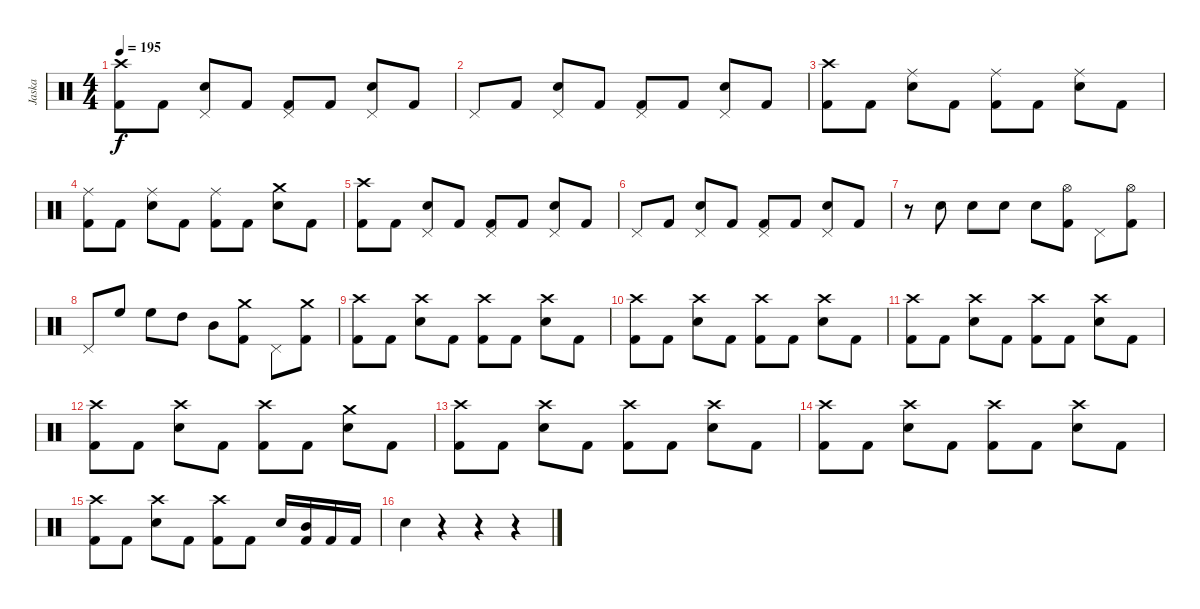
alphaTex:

\track ("Jaska" "Jaska") {instrument percussion}
\staff {score}
\articulation defaults
\ts (4 4)
\tempo 195
\clef neutral
\ks c
("Crash high (hit)" "Kick (hit) 2").8{dy f} "Kick (hit) 2".8 ("Pedal Hi-Hat (hit)" "Electric Snare (hit)").8 "Kick (hit) 2".8 ("Pedal Hi-Hat (hit)" "Kick (hit) 2").8 "Kick (hit) 2".8 ("Pedal Hi-Hat (hit)" "Electric Snare (hit)").8 "Kick (hit) 2".8 |
"Pedal Hi-Hat (hit)".8 "Kick (hit) 2".8 ("Pedal Hi-Hat (hit)" "Electric Snare (hit)").8 "Kick (hit) 2".8 ("Pedal Hi-Hat (hit)" "Kick (hit) 2").8 "Kick (hit) 2".8 ("Pedal Hi-Hat (hit)" "Electric Snare (hit)").8 "Kick (hit) 2".8 |
("Crash high (hit)" "Kick (hit) 2").8 "Kick (hit) 2".8 ("Ride (middle)" "Electric Snare (hit)").8 "Kick (hit) 2".8 ("Ride (middle)" "Kick (hit) 2").8 "Kick (hit) 2".8 ("Ride (middle)" "Electric Snare (hit)").8 "Kick (hit) 2".8 |
("Ride (middle)" "Kick (hit) 2").8 "Kick (hit) 2".8 ("Ride (middle)" "Electric Snare (hit)").8 "Kick (hit) 2".8 ("Ride (middle)" "Kick (hit) 2").8 "Kick (hit) 2".8 ("Crash medium (hit)" "Electric Snare (hit)").8 "Kick (hit) 2".8 |
("Crash high (hit)" "Kick (hit) 2").8 "Kick (hit) 2".8 ("Pedal Hi-Hat (hit)" "Electric Snare (hit)").8 "Kick (hit) 2".8 ("Pedal Hi-Hat (hit)" "Kick (hit) 2").8 "Kick (hit) 2".8 ("Pedal Hi-Hat (hit)" "Electric Snare (hit)").8 "Kick (hit) 2".8 |
"Pedal Hi-Hat (hit)".8 "Kick (hit) 2".8 ("Pedal Hi-Hat (hit)" "Electric Snare (hit)").8 "Kick (hit) 2".8 ("Pedal Hi-Hat (hit)" "Kick (hit) 2").8 "Kick (hit) 2".8 ("Pedal Hi-Hat (hit)" "Electric Snare (hit)").8 "Kick (hit) 2".8 |
r.8 "Electric Snare (hit)".8 "Electric Snare (hit)".8 "Electric Snare (hit)".8 "Electric Snare (hit)".8 ("Hi-Hat (open)" "Kick (hit) 2").8 "Pedal Hi-Hat (hit)".8 ("Hi-Hat (open)" "Kick (hit) 2").8 |
"Pedal Hi-Hat (hit)".8 "High Floor Tom (hit)".8 "High Floor Tom (hit)".8 "High Tom (hit)".8 "Mid Tom (hit)".8 ("Crash medium (hit)" "Kick (hit) 2").8 "Pedal Hi-Hat (hit)".8 ("Crash medium (hit)" "Kick (hit) 2").8 |
("Crash high (hit)" "Kick (hit) 2").8 "Kick (hit) 2".8 ("Crash high (hit)" "Electric Snare (hit)").8 "Kick (hit) 2".8 ("Crash high (hit)" "Kick (hit) 2").8 "Kick (hit) 2".8 ("Crash high (hit)" "Electric Snare (hit)").8 "Kick (hit) 2".8 |
("Crash high (hit)" "Kick (hit) 2").8 "Kick (hit) 2".8 ("Crash high (hit)" "Electric Snare (hit)").8 "Kick (hit) 2".8 ("Crash high (hit)" "Kick (hit) 2").8 "Kick (hit) 2".8 ("Crash high (hit)" "Electric Snare (hit)").8 "Kick (hit) 2".8 |
("Crash high (hit)" "Kick (hit) 2").8 "Kick (hit) 2".8 ("Crash high (hit)" "Electric Snare (hit)").8 "Kick (hit) 2".8 ("Crash high (hit)" "Kick (hit) 2").8 "Kick (hit) 2".8 ("Crash high (hit)" "Electric Snare (hit)").8 "Kick (hit) 2".8 |
("Crash high (hit)" "Kick (hit) 2").8 "Kick (hit) 2".8 ("Crash high (hit)" "Electric Snare (hit)").8 "Kick (hit) 2".8 ("Crash high (hit)" "Kick (hit) 2").8 "Kick (hit) 2".8 ("Crash medium (hit)" "Electric Snare (hit)").8 "Kick (hit) 2".8 |
("Crash high (hit)" "Kick (hit) 2").8 "Kick (hit) 2".8 ("Crash high (hit)" "Electric Snare (hit)").8 "Kick (hit) 2".8 ("Crash high (hit)" "Kick (hit) 2").8 "Kick (hit) 2".8 ("Crash high (hit)" "Electric Snare (hit)").8 "Kick (hit) 2".8 |
("Crash high (hit)" "Kick (hit) 2").8 "Kick (hit) 2".8 ("Crash high (hit)" "Electric Snare (hit)").8 "Kick (hit) 2".8 ("Crash high (hit)" "Kick (hit) 2").8 "Kick (hit) 2".8 ("Crash high (hit)" "Electric Snare (hit)").8 "Kick (hit) 2".8 |
("Crash high (hit)" "Kick (hit) 2").8 "Kick (hit) 2".8 ("Crash high (hit)" "Electric Snare (hit)").8 "Kick (hit) 2".8 ("Crash high (hit)" "Kick (hit) 2").8 "Kick (hit) 2".8 "Electric Snare (hit)".16 ("Mid Tom (hit)" "Kick (hit) 2").16 "Kick (hit) 2".16 "Kick (hit) 2".16 |
"Electric Snare (hit)".4 r.4 r.4 r.4
